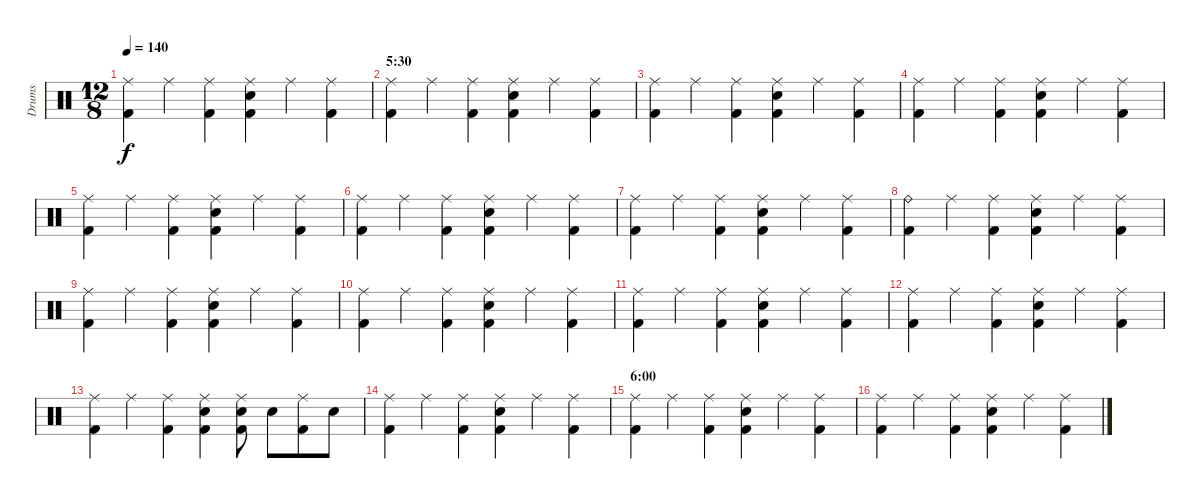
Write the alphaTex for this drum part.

\track ("Drums" "Drums") {instrument percussion}
\staff {score}
\articulation defaults
\ts (12 8)
\tempo 140
\clef neutral
\ks c
("Ride (middle)" "Kick (hit) 2").4{dy f} "Ride (middle)".4 ("Ride (middle)" "Kick (hit) 2").4 ("Ride (middle)" "Snare (hit) 2" "Kick (hit) 2").4 "Ride (middle)".4 ("Ride (middle)" "Kick (hit) 2").4 |
\section ("" "5:30")
("Ride (middle)" "Kick (hit) 2").4 "Ride (middle)".4 ("Ride (middle)" "Kick (hit) 2").4 ("Ride (middle)" "Snare (hit) 2" "Kick (hit) 2").4 "Ride (middle)".4 ("Ride (middle)" "Kick (hit) 2").4 |
("Ride (middle)" "Kick (hit) 2").4 "Ride (middle)".4 ("Ride (middle)" "Kick (hit) 2").4 ("Ride (middle)" "Snare (hit) 2" "Kick (hit) 2").4 "Ride (middle)".4 ("Ride (middle)" "Kick (hit) 2").4 |
("Ride (middle)" "Kick (hit) 2").4 "Ride (middle)".4 ("Ride (middle)" "Kick (hit) 2").4 ("Ride (middle)" "Snare (hit) 2" "Kick (hit) 2").4 "Ride (middle)".4 ("Ride (middle)" "Kick (hit) 2").4 |
("Ride (middle)" "Kick (hit) 2").4 "Ride (middle)".4 ("Ride (middle)" "Kick (hit) 2").4 ("Ride (middle)" "Snare (hit) 2" "Kick (hit) 2").4 "Ride (middle)".4 ("Ride (middle)" "Kick (hit) 2").4 |
("Ride (middle)" "Kick (hit) 2").4 "Ride (middle)".4 ("Ride (middle)" "Kick (hit) 2").4 ("Ride (middle)" "Snare (hit) 2" "Kick (hit) 2").4 "Ride (middle)".4 ("Ride (middle)" "Kick (hit) 2").4 |
("Ride (middle)" "Kick (hit) 2").4 "Ride (middle)".4 ("Ride (middle)" "Kick (hit) 2").4 ("Ride (middle)" "Snare (hit) 2" "Kick (hit) 2").4 "Ride (middle)".4 ("Ride (middle)" "Kick (hit) 2").4 |
("Ride (bell)" "Kick (hit) 2").4 "Ride (middle)".4 ("Ride (middle)" "Kick (hit) 2").4 ("Ride (middle)" "Snare (hit) 2" "Kick (hit) 2").4 "Ride (middle)".4 ("Ride (middle)" "Kick (hit) 2").4 |
("Ride (middle)" "Kick (hit) 2").4 "Ride (middle)".4 ("Ride (middle)" "Kick (hit) 2").4 ("Ride (middle)" "Snare (hit) 2" "Kick (hit) 2").4 "Ride (middle)".4 ("Ride (middle)" "Kick (hit) 2").4 |
("Ride (middle)" "Kick (hit) 2").4 "Ride (middle)".4 ("Ride (middle)" "Kick (hit) 2").4 ("Ride (middle)" "Snare (hit) 2" "Kick (hit) 2").4 "Ride (middle)".4 ("Ride (middle)" "Kick (hit) 2").4 |
("Ride (middle)" "Kick (hit) 2").4 "Ride (middle)".4 ("Ride (middle)" "Kick (hit) 2").4 ("Ride (middle)" "Snare (hit) 2" "Kick (hit) 2").4 "Ride (middle)".4 ("Ride (middle)" "Kick (hit) 2").4 |
("Ride (middle)" "Kick (hit) 2").4 "Ride (middle)".4 ("Ride (middle)" "Kick (hit) 2").4 ("Ride (middle)" "Snare (hit) 2" "Kick (hit) 2").4 "Ride (middle)".4 ("Ride (middle)" "Kick (hit) 2").4 |
("Ride (middle)" "Kick (hit) 2").4 "Ride (middle)".4 ("Ride (middle)" "Kick (hit) 2").4 ("Ride (middle)" "Snare (hit) 2" "Kick (hit) 2").4 ("Ride (middle)" "Snare (hit) 2" "Kick (hit) 2").8 "Snare (hit) 2".8 ("Ride (middle)" "Kick (hit) 2").8 "Snare (hit) 2".8 |
("Ride (middle)" "Kick (hit) 2").4 "Ride (middle)".4 ("Ride (middle)" "Kick (hit) 2").4 ("Ride (middle)" "Snare (hit) 2" "Kick (hit) 2").4 "Ride (middle)".4 ("Ride (middle)" "Kick (hit) 2").4 |
\section ("" "6:00")
("Ride (middle)" "Kick (hit) 2").4 "Ride (middle)".4 ("Ride (middle)" "Kick (hit) 2").4 ("Ride (middle)" "Snare (hit) 2" "Kick (hit) 2").4 "Ride (middle)".4 ("Ride (middle)" "Kick (hit) 2").4 |
("Ride (middle)" "Kick (hit) 2").4 "Ride (middle)".4 ("Ride (middle)" "Kick (hit) 2").4 ("Ride (middle)" "Snare (hit) 2" "Kick (hit) 2").4 "Ride (middle)".4 ("Ride (middle)" "Kick (hit) 2").4
